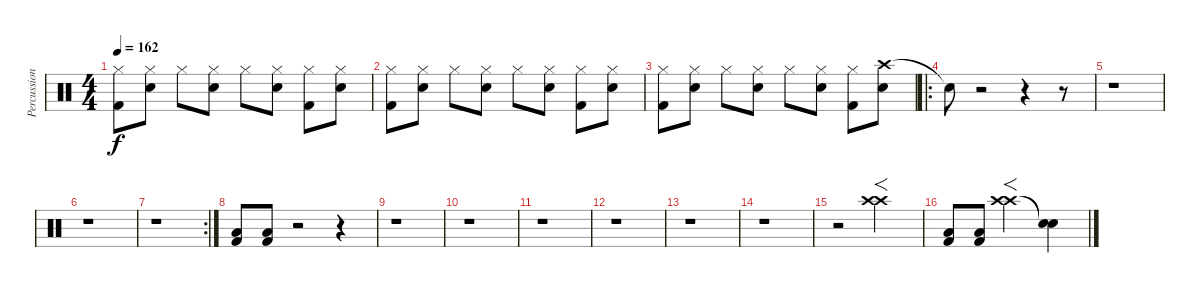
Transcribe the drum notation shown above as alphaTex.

\track ("Percussions" "Percussion") {instrument percussion}
\staff {score}
\articulation defaults
\ts (4 4)
\tempo 162
\clef neutral
\ks c
("Hi-Hat (closed)" "Kick (hit) 2").8{dy f} ("Hi-Hat (closed)" "Electric Snare (hit)").8 "Hi-Hat (closed)".8 ("Hi-Hat (closed)" "Electric Snare (hit)").8 "Hi-Hat (closed)".8 ("Hi-Hat (closed)" "Electric Snare (hit)").8 ("Hi-Hat (closed)" "Kick (hit) 2").8 ("Hi-Hat (closed)" "Electric Snare (hit)").8 |
("Hi-Hat (closed)" "Kick (hit) 2").8 ("Hi-Hat (closed)" "Electric Snare (hit)").8 "Hi-Hat (closed)".8 ("Hi-Hat (closed)" "Electric Snare (hit)").8 "Hi-Hat (closed)".8 ("Hi-Hat (closed)" "Electric Snare (hit)").8 ("Hi-Hat (closed)" "Kick (hit) 2").8 ("Hi-Hat (closed)" "Electric Snare (hit)").8 |
("Hi-Hat (closed)" "Kick (hit) 2").8 ("Hi-Hat (closed)" "Electric Snare (hit)").8 "Hi-Hat (closed)".8 ("Hi-Hat (closed)" "Electric Snare (hit)").8 "Hi-Hat (closed)".8 ("Hi-Hat (closed)" "Electric Snare (hit)").8 ("Hi-Hat (closed)" "Kick (hit) 2").8 ("Crash high (hit)" "Electric Snare (hit)").8 |
\ro "Snare (hit)"{t}.8
r.2 r.4 r.8 |
r.1 |
r.1 |
\rc 2
r.1 |
("Low Floor Tom (hit)" "Kick (hit) 2").8 ("Low Floor Tom (hit)" "Kick (hit) 2").8 r.2 r.4 |
r.1 |
r.1 |
r.1 |
r.1 |
r.1 |
r.1 |
r.2 ("Crash high (hit)" "Crash high (hit)").2{f} |
("Low Floor Tom (hit)" "Kick (hit) 2").8 ("Low Floor Tom (hit)" "Kick (hit) 2").8 ("Crash high (hit)" "Crash high (hit)").2{f} ("Snare (hit)"{t} "Snare (hit)"{t}).4
